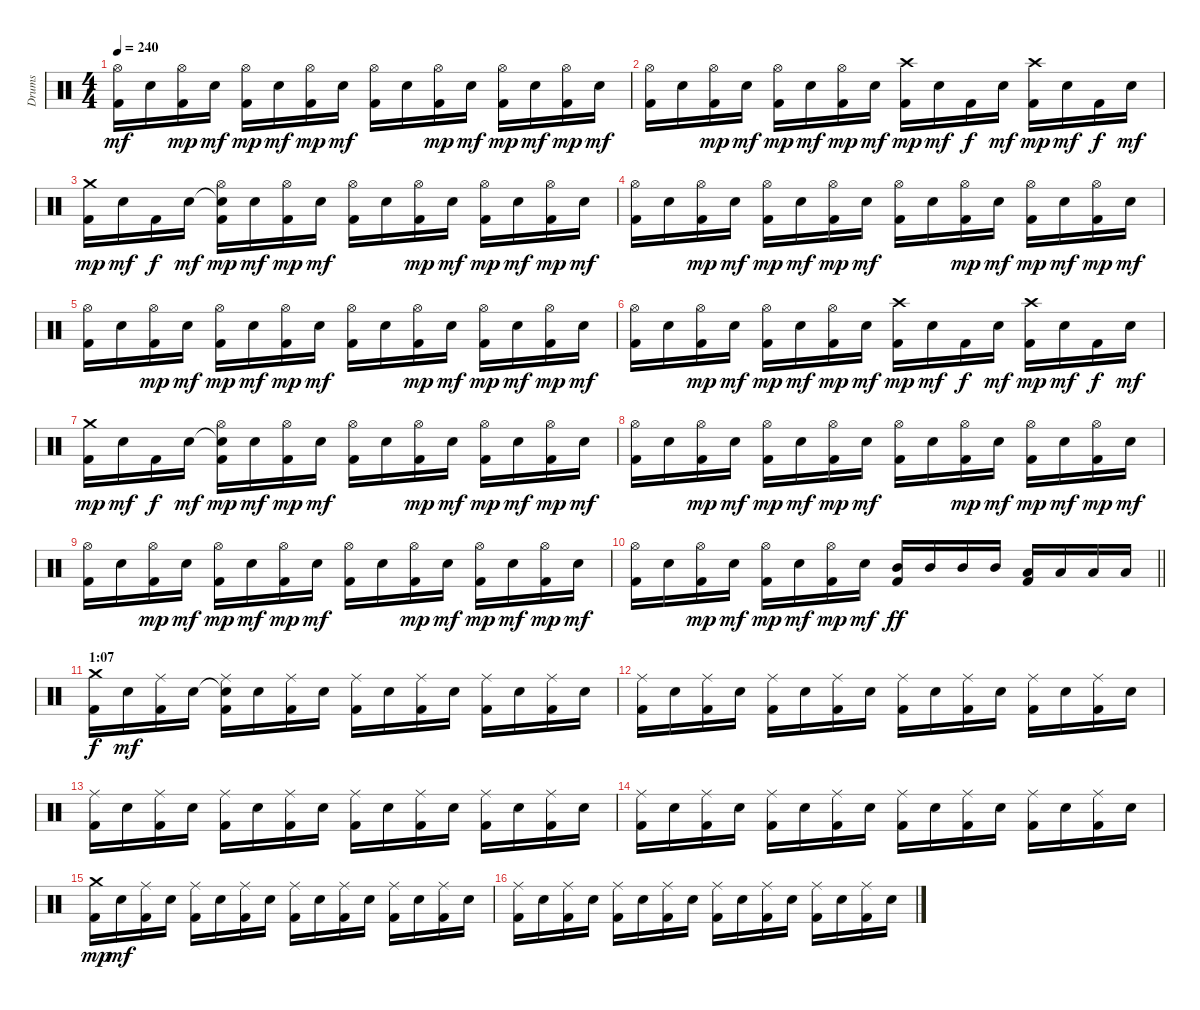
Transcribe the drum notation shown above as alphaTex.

\track ("Drums" "Drums") {instrument percussion}
\staff {score}
\articulation defaults
\ts (4 4)
\tempo 240
\clef neutral
\ks c
("Hi-Hat (open)" "Kick (hit) 2").16{dy mf} "Electric Snare (hit)".16 ("Hi-Hat (open)" "Kick (hit) 2").16{dy mp} "Electric Snare (hit)".16{dy mf} ("Hi-Hat (open)" "Kick (hit) 2").16{dy mp} "Electric Snare (hit)".16{dy mf} ("Hi-Hat (open)" "Kick (hit) 2").16{dy mp} "Electric Snare (hit)".16{dy mf} ("Hi-Hat (open)" "Kick (hit) 2").16 "Electric Snare (hit)".16 ("Hi-Hat (open)" "Kick (hit) 2").16{dy mp} "Electric Snare (hit)".16{dy mf} ("Hi-Hat (open)" "Kick (hit) 2").16{dy mp} "Electric Snare (hit)".16{dy mf} ("Hi-Hat (open)" "Kick (hit) 2").16{dy mp} "Electric Snare (hit)".16{dy mf} |
("Hi-Hat (open)" "Kick (hit) 2").16 "Electric Snare (hit)".16 ("Hi-Hat (open)" "Kick (hit) 2").16{dy mp} "Electric Snare (hit)".16{dy mf} ("Hi-Hat (open)" "Kick (hit) 2").16{dy mp} "Electric Snare (hit)".16{dy mf} ("Hi-Hat (open)" "Kick (hit) 2").16{dy mp} "Electric Snare (hit)".16{dy mf} ("Crash high (hit)" "Kick (hit) 2").16{dy mp} "Electric Snare (hit)".16{dy mf} "Kick (hit) 2".16{dy f} "Electric Snare (hit)".16{dy mf} ("Crash high (hit)" "Kick (hit) 2").16{dy mp} "Electric Snare (hit)".16{dy mf} "Kick (hit) 2".16{dy f} "Electric Snare (hit)".16{dy mf} |
("Crash medium (hit)" "Kick (hit) 2").16{dy mp} "Electric Snare (hit)".16{dy mf} "Kick (hit) 2".16{dy f} "Electric Snare (hit)".16{dy mf} ("Snare (hit)"{t} "Hi-Hat (open)" "Kick (hit) 2").16{dy mp} "Electric Snare (hit)".16{dy mf} ("Hi-Hat (open)" "Kick (hit) 2").16{dy mp} "Electric Snare (hit)".16{dy mf} ("Hi-Hat (open)" "Kick (hit) 2").16 "Electric Snare (hit)".16 ("Hi-Hat (open)" "Kick (hit) 2").16{dy mp} "Electric Snare (hit)".16{dy mf} ("Hi-Hat (open)" "Kick (hit) 2").16{dy mp} "Electric Snare (hit)".16{dy mf} ("Hi-Hat (open)" "Kick (hit) 2").16{dy mp} "Electric Snare (hit)".16{dy mf} |
("Hi-Hat (open)" "Kick (hit) 2").16 "Electric Snare (hit)".16 ("Hi-Hat (open)" "Kick (hit) 2").16{dy mp} "Electric Snare (hit)".16{dy mf} ("Hi-Hat (open)" "Kick (hit) 2").16{dy mp} "Electric Snare (hit)".16{dy mf} ("Hi-Hat (open)" "Kick (hit) 2").16{dy mp} "Electric Snare (hit)".16{dy mf} ("Hi-Hat (open)" "Kick (hit) 2").16 "Electric Snare (hit)".16 ("Hi-Hat (open)" "Kick (hit) 2").16{dy mp} "Electric Snare (hit)".16{dy mf} ("Hi-Hat (open)" "Kick (hit) 2").16{dy mp} "Electric Snare (hit)".16{dy mf} ("Hi-Hat (open)" "Kick (hit) 2").16{dy mp} "Electric Snare (hit)".16{dy mf} |
("Hi-Hat (open)" "Kick (hit) 2").16 "Electric Snare (hit)".16 ("Hi-Hat (open)" "Kick (hit) 2").16{dy mp} "Electric Snare (hit)".16{dy mf} ("Hi-Hat (open)" "Kick (hit) 2").16{dy mp} "Electric Snare (hit)".16{dy mf} ("Hi-Hat (open)" "Kick (hit) 2").16{dy mp} "Electric Snare (hit)".16{dy mf} ("Hi-Hat (open)" "Kick (hit) 2").16 "Electric Snare (hit)".16 ("Hi-Hat (open)" "Kick (hit) 2").16{dy mp} "Electric Snare (hit)".16{dy mf} ("Hi-Hat (open)" "Kick (hit) 2").16{dy mp} "Electric Snare (hit)".16{dy mf} ("Hi-Hat (open)" "Kick (hit) 2").16{dy mp} "Electric Snare (hit)".16{dy mf} |
("Hi-Hat (open)" "Kick (hit) 2").16 "Electric Snare (hit)".16 ("Hi-Hat (open)" "Kick (hit) 2").16{dy mp} "Electric Snare (hit)".16{dy mf} ("Hi-Hat (open)" "Kick (hit) 2").16{dy mp} "Electric Snare (hit)".16{dy mf} ("Hi-Hat (open)" "Kick (hit) 2").16{dy mp} "Electric Snare (hit)".16{dy mf} ("Crash high (hit)" "Kick (hit) 2").16{dy mp} "Electric Snare (hit)".16{dy mf} "Kick (hit) 2".16{dy f} "Electric Snare (hit)".16{dy mf} ("Crash high (hit)" "Kick (hit) 2").16{dy mp} "Electric Snare (hit)".16{dy mf} "Kick (hit) 2".16{dy f} "Electric Snare (hit)".16{dy mf} |
("Crash medium (hit)" "Kick (hit) 2").16{dy mp} "Electric Snare (hit)".16{dy mf} "Kick (hit) 2".16{dy f} "Electric Snare (hit)".16{dy mf} ("Snare (hit)"{t} "Hi-Hat (open)" "Kick (hit) 2").16{dy mp} "Electric Snare (hit)".16{dy mf} ("Hi-Hat (open)" "Kick (hit) 2").16{dy mp} "Electric Snare (hit)".16{dy mf} ("Hi-Hat (open)" "Kick (hit) 2").16 "Electric Snare (hit)".16 ("Hi-Hat (open)" "Kick (hit) 2").16{dy mp} "Electric Snare (hit)".16{dy mf} ("Hi-Hat (open)" "Kick (hit) 2").16{dy mp} "Electric Snare (hit)".16{dy mf} ("Hi-Hat (open)" "Kick (hit) 2").16{dy mp} "Electric Snare (hit)".16{dy mf} |
("Hi-Hat (open)" "Kick (hit) 2").16 "Electric Snare (hit)".16 ("Hi-Hat (open)" "Kick (hit) 2").16{dy mp} "Electric Snare (hit)".16{dy mf} ("Hi-Hat (open)" "Kick (hit) 2").16{dy mp} "Electric Snare (hit)".16{dy mf} ("Hi-Hat (open)" "Kick (hit) 2").16{dy mp} "Electric Snare (hit)".16{dy mf} ("Hi-Hat (open)" "Kick (hit) 2").16 "Electric Snare (hit)".16 ("Hi-Hat (open)" "Kick (hit) 2").16{dy mp} "Electric Snare (hit)".16{dy mf} ("Hi-Hat (open)" "Kick (hit) 2").16{dy mp} "Electric Snare (hit)".16{dy mf} ("Hi-Hat (open)" "Kick (hit) 2").16{dy mp} "Electric Snare (hit)".16{dy mf} |
("Hi-Hat (open)" "Kick (hit) 2").16 "Electric Snare (hit)".16 ("Hi-Hat (open)" "Kick (hit) 2").16{dy mp} "Electric Snare (hit)".16{dy mf} ("Hi-Hat (open)" "Kick (hit) 2").16{dy mp} "Electric Snare (hit)".16{dy mf} ("Hi-Hat (open)" "Kick (hit) 2").16{dy mp} "Electric Snare (hit)".16{dy mf} ("Hi-Hat (open)" "Kick (hit) 2").16 "Electric Snare (hit)".16 ("Hi-Hat (open)" "Kick (hit) 2").16{dy mp} "Electric Snare (hit)".16{dy mf} ("Hi-Hat (open)" "Kick (hit) 2").16{dy mp} "Electric Snare (hit)".16{dy mf} ("Hi-Hat (open)" "Kick (hit) 2").16{dy mp} "Electric Snare (hit)".16{dy mf} |
\barLineRight lightlight
("Hi-Hat (open)" "Kick (hit) 2").16 "Electric Snare (hit)".16 ("Hi-Hat (open)" "Kick (hit) 2").16{dy mp} "Electric Snare (hit)".16{dy mf} ("Hi-Hat (open)" "Kick (hit) 2").16{dy mp} "Electric Snare (hit)".16{dy mf} ("Hi-Hat (open)" "Kick (hit) 2").16{dy mp} "Electric Snare (hit)".16{dy mf} ("Mid Tom (hit)" "Kick (hit) 2").16{dy ff} "Mid Tom (hit)".16 "Mid Tom (hit)".16 "Mid Tom (hit)".16 ("Low Tom (hit)" "Kick (hit) 2").16 "Low Tom (hit)".16 "Low Tom (hit)".16 "Low Tom (hit)".16 |
\section ("" "1:07")
("Crash medium (hit)" "Kick (hit) 2").16{dy f} "Electric Snare (hit)".16{dy mf} ("Ride (middle)" "Kick (hit) 2").16 "Electric Snare (hit)".16 ("Snare (hit)"{t} "Ride (middle)" "Kick (hit) 2").16 "Electric Snare (hit)".16 ("Ride (middle)" "Kick (hit) 2").16 "Electric Snare (hit)".16 ("Ride (middle)" "Kick (hit) 2").16 "Electric Snare (hit)".16 ("Ride (middle)" "Kick (hit) 2").16 "Electric Snare (hit)".16 ("Ride (middle)" "Kick (hit) 2").16 "Electric Snare (hit)".16 ("Ride (middle)" "Kick (hit) 2").16 "Electric Snare (hit)".16 |
("Ride (middle)" "Kick (hit) 2").16 "Electric Snare (hit)".16 ("Ride (middle)" "Kick (hit) 2").16 "Electric Snare (hit)".16 ("Ride (middle)" "Kick (hit) 2").16 "Electric Snare (hit)".16 ("Ride (middle)" "Kick (hit) 2").16 "Electric Snare (hit)".16 ("Ride (middle)" "Kick (hit) 2").16 "Electric Snare (hit)".16 ("Ride (middle)" "Kick (hit) 2").16 "Electric Snare (hit)".16 ("Ride (middle)" "Kick (hit) 2").16 "Electric Snare (hit)".16 ("Ride (middle)" "Kick (hit) 2").16 "Electric Snare (hit)".16 |
("Ride (middle)" "Kick (hit) 2").16 "Electric Snare (hit)".16 ("Ride (middle)" "Kick (hit) 2").16 "Electric Snare (hit)".16 ("Ride (middle)" "Kick (hit) 2").16 "Electric Snare (hit)".16 ("Ride (middle)" "Kick (hit) 2").16 "Electric Snare (hit)".16 ("Ride (middle)" "Kick (hit) 2").16 "Electric Snare (hit)".16 ("Ride (middle)" "Kick (hit) 2").16 "Electric Snare (hit)".16 ("Ride (middle)" "Kick (hit) 2").16 "Electric Snare (hit)".16 ("Ride (middle)" "Kick (hit) 2").16 "Electric Snare (hit)".16 |
("Ride (middle)" "Kick (hit) 2").16 "Electric Snare (hit)".16 ("Ride (middle)" "Kick (hit) 2").16 "Electric Snare (hit)".16 ("Ride (middle)" "Kick (hit) 2").16 "Electric Snare (hit)".16 ("Ride (middle)" "Kick (hit) 2").16 "Electric Snare (hit)".16 ("Ride (middle)" "Kick (hit) 2").16 "Electric Snare (hit)".16 ("Ride (middle)" "Kick (hit) 2").16 "Electric Snare (hit)".16 ("Ride (middle)" "Kick (hit) 2").16 "Electric Snare (hit)".16 ("Ride (middle)" "Kick (hit) 2").16 "Electric Snare (hit)".16 |
("Crash medium (hit)" "Kick (hit) 2").16{dy mp} "Electric Snare (hit)".16{dy mf} ("Ride (middle)" "Kick (hit) 2").16 "Electric Snare (hit)".16 ("Ride (middle)" "Kick (hit) 2").16 "Electric Snare (hit)".16 ("Ride (middle)" "Kick (hit) 2").16 "Electric Snare (hit)".16 ("Ride (middle)" "Kick (hit) 2").16 "Electric Snare (hit)".16 ("Ride (middle)" "Kick (hit) 2").16 "Electric Snare (hit)".16 ("Ride (middle)" "Kick (hit) 2").16 "Electric Snare (hit)".16 ("Ride (middle)" "Kick (hit) 2").16 "Electric Snare (hit)".16 |
("Ride (middle)" "Kick (hit) 2").16 "Electric Snare (hit)".16 ("Ride (middle)" "Kick (hit) 2").16 "Electric Snare (hit)".16 ("Ride (middle)" "Kick (hit) 2").16 "Electric Snare (hit)".16 ("Ride (middle)" "Kick (hit) 2").16 "Electric Snare (hit)".16 ("Ride (middle)" "Kick (hit) 2").16 "Electric Snare (hit)".16 ("Ride (middle)" "Kick (hit) 2").16 "Electric Snare (hit)".16 ("Ride (middle)" "Kick (hit) 2").16 "Electric Snare (hit)".16 ("Ride (middle)" "Kick (hit) 2").16 "Electric Snare (hit)".16
